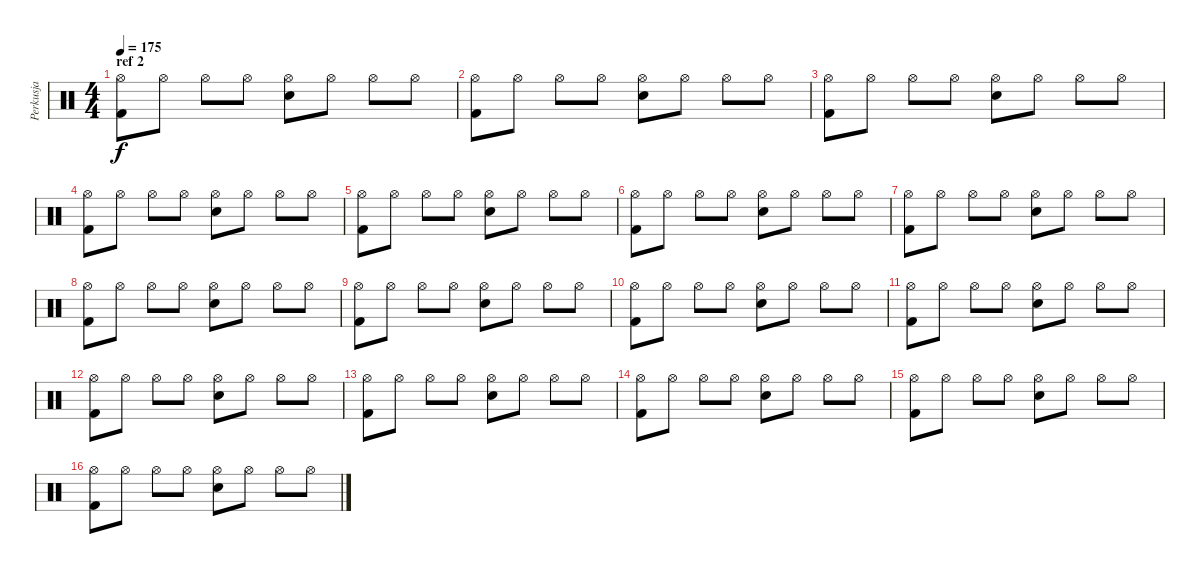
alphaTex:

\track ("Perkusja" "Perkusja") {instrument percussion}
\staff {score}
\articulation defaults
\ts (4 4)
\section ("" "ref 2")
\tempo 175
\clef neutral
\ks c
("Kick (hit) 2" "Hi-Hat (open)").8{dy f} "Hi-Hat (open)".8 "Hi-Hat (open)".8 "Hi-Hat (open)".8 ("Snare (hit) 2" "Hi-Hat (open)").8 "Hi-Hat (open)".8 "Hi-Hat (open)".8 "Hi-Hat (open)".8 |
("Kick (hit) 2" "Hi-Hat (open)").8 "Hi-Hat (open)".8 "Hi-Hat (open)".8 "Hi-Hat (open)".8 ("Snare (hit) 2" "Hi-Hat (open)").8 "Hi-Hat (open)".8 "Hi-Hat (open)".8 "Hi-Hat (open)".8 |
("Kick (hit) 2" "Hi-Hat (open)").8 "Hi-Hat (open)".8 "Hi-Hat (open)".8 "Hi-Hat (open)".8 ("Snare (hit) 2" "Hi-Hat (open)").8 "Hi-Hat (open)".8 "Hi-Hat (open)".8 "Hi-Hat (open)".8 |
("Kick (hit) 2" "Hi-Hat (open)").8 "Hi-Hat (open)".8 "Hi-Hat (open)".8 "Hi-Hat (open)".8 ("Snare (hit) 2" "Hi-Hat (open)").8 "Hi-Hat (open)".8 "Hi-Hat (open)".8 "Hi-Hat (open)".8 |
("Kick (hit) 2" "Hi-Hat (open)").8 "Hi-Hat (open)".8 "Hi-Hat (open)".8 "Hi-Hat (open)".8 ("Snare (hit) 2" "Hi-Hat (open)").8 "Hi-Hat (open)".8 "Hi-Hat (open)".8 "Hi-Hat (open)".8 |
("Kick (hit) 2" "Hi-Hat (open)").8 "Hi-Hat (open)".8 "Hi-Hat (open)".8 "Hi-Hat (open)".8 ("Snare (hit) 2" "Hi-Hat (open)").8 "Hi-Hat (open)".8 "Hi-Hat (open)".8 "Hi-Hat (open)".8 |
("Kick (hit) 2" "Hi-Hat (open)").8 "Hi-Hat (open)".8 "Hi-Hat (open)".8 "Hi-Hat (open)".8 ("Snare (hit) 2" "Hi-Hat (open)").8 "Hi-Hat (open)".8 "Hi-Hat (open)".8 "Hi-Hat (open)".8 |
("Kick (hit) 2" "Hi-Hat (open)").8 "Hi-Hat (open)".8 "Hi-Hat (open)".8 "Hi-Hat (open)".8 ("Snare (hit) 2" "Hi-Hat (open)").8 "Hi-Hat (open)".8 "Hi-Hat (open)".8 "Hi-Hat (open)".8 |
("Kick (hit) 2" "Hi-Hat (open)").8 "Hi-Hat (open)".8 "Hi-Hat (open)".8 "Hi-Hat (open)".8 ("Snare (hit) 2" "Hi-Hat (open)").8 "Hi-Hat (open)".8 "Hi-Hat (open)".8 "Hi-Hat (open)".8 |
("Kick (hit) 2" "Hi-Hat (open)").8 "Hi-Hat (open)".8 "Hi-Hat (open)".8 "Hi-Hat (open)".8 ("Snare (hit) 2" "Hi-Hat (open)").8 "Hi-Hat (open)".8 "Hi-Hat (open)".8 "Hi-Hat (open)".8 |
("Kick (hit) 2" "Hi-Hat (open)").8 "Hi-Hat (open)".8 "Hi-Hat (open)".8 "Hi-Hat (open)".8 ("Snare (hit) 2" "Hi-Hat (open)").8 "Hi-Hat (open)".8 "Hi-Hat (open)".8 "Hi-Hat (open)".8 |
("Kick (hit) 2" "Hi-Hat (open)").8 "Hi-Hat (open)".8 "Hi-Hat (open)".8 "Hi-Hat (open)".8 ("Snare (hit) 2" "Hi-Hat (open)").8 "Hi-Hat (open)".8 "Hi-Hat (open)".8 "Hi-Hat (open)".8 |
("Kick (hit) 2" "Hi-Hat (open)").8 "Hi-Hat (open)".8 "Hi-Hat (open)".8 "Hi-Hat (open)".8 ("Snare (hit) 2" "Hi-Hat (open)").8 "Hi-Hat (open)".8 "Hi-Hat (open)".8 "Hi-Hat (open)".8 |
("Kick (hit) 2" "Hi-Hat (open)").8 "Hi-Hat (open)".8 "Hi-Hat (open)".8 "Hi-Hat (open)".8 ("Snare (hit) 2" "Hi-Hat (open)").8 "Hi-Hat (open)".8 "Hi-Hat (open)".8 "Hi-Hat (open)".8 |
("Kick (hit) 2" "Hi-Hat (open)").8 "Hi-Hat (open)".8 "Hi-Hat (open)".8 "Hi-Hat (open)".8 ("Snare (hit) 2" "Hi-Hat (open)").8 "Hi-Hat (open)".8 "Hi-Hat (open)".8 "Hi-Hat (open)".8 |
("Kick (hit) 2" "Hi-Hat (open)").8 "Hi-Hat (open)".8 "Hi-Hat (open)".8 "Hi-Hat (open)".8 ("Snare (hit) 2" "Hi-Hat (open)").8 "Hi-Hat (open)".8 "Hi-Hat (open)".8 "Hi-Hat (open)".8
